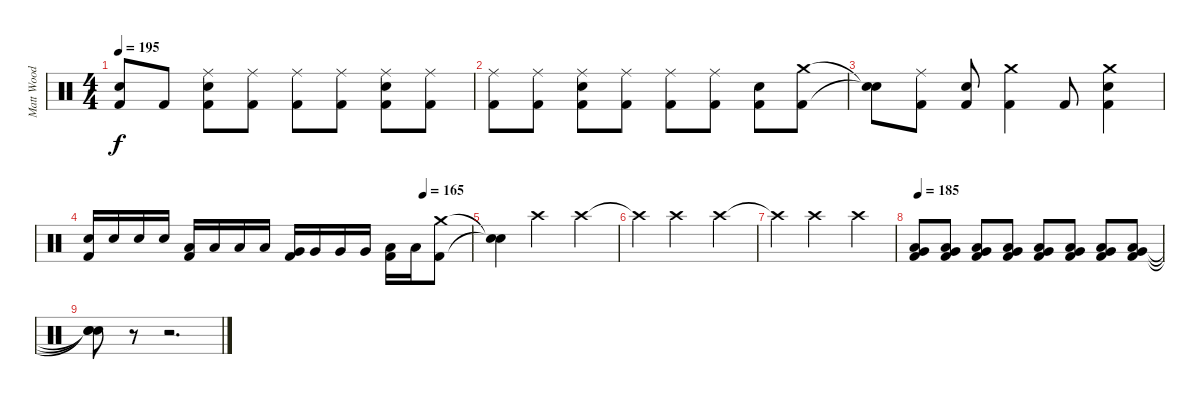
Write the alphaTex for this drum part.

\track ("Matt Wood" "Matt Wood") {instrument percussion}
\staff {score}
\articulation defaults
\ts (4 4)
\tempo 195
\clef neutral
\ks c
("Snare (hit)"{t} "Kick (hit) 2"{t}).8{dy f} "Kick (hit) 2".8 ("Ride (middle)" "Snare (hit) 2" "Kick (hit) 2").8 ("Ride (middle)" "Kick (hit) 2").8 ("Ride (middle)" "Kick (hit) 2").8 ("Ride (middle)" "Kick (hit) 2").8 ("Ride (middle)" "Snare (hit) 2" "Kick (hit) 2").8 ("Ride (middle)" "Kick (hit) 2").8 |
("Ride (middle)" "Kick (hit) 2").8 ("Ride (middle)" "Kick (hit) 2").8 ("Ride (middle)" "Snare (hit) 2" "Kick (hit) 2").8 ("Ride (middle)" "Kick (hit) 2").8 ("Ride (middle)" "Kick (hit) 2").8 ("Ride (middle)" "Kick (hit) 2").8 ("Snare (hit) 2" "Kick (hit) 2").8 ("Crash medium (hit)" "Kick (hit) 2").8 |
("Snare (hit)"{t} "Snare (hit)"{t}).8 ("Ride (middle)" "Kick (hit) 2").8 ("Snare (hit) 2" "Kick (hit) 2").8 ("Crash medium (hit)" "Kick (hit) 2").4 "Kick (hit) 2".8 ("Crash medium (hit)" "Snare (hit) 2" "Kick (hit) 2").4 |
\tempo (165 0.875)
("Snare (hit) 2" "Kick (hit) 2").16 "Snare (hit) 2".16 "Snare (hit) 2".16 "Snare (hit) 2".16 ("Low Tom (hit)" "Kick (hit) 2").16 "Low Tom (hit)".16 "Low Tom (hit)".16 "Low Tom (hit)".16 ("Very Low Tom (hit)" "Kick (hit) 2").16 "Very Low Tom (hit)".16 "Very Low Tom (hit)".16 "Very Low Tom (hit)".16 ("Low Floor Tom (hit)" "Kick (hit) 2").16 "Low Floor Tom (hit)".16 ("Crash medium (hit)" "Kick (hit) 2").8 |
("Snare (hit)"{t} "Snare (hit)"{t}).4 "Crash high (hit)".2 "Crash high (hit)".4 |
"Crash high (hit)"{t}.4 "Crash high (hit)".2 "Crash high (hit)".4 |
"Crash high (hit)"{t}.4 "Crash high (hit)".2 "Crash high (hit)".4 |
\tempo 185
("Low Tom (hit)" "Very Low Tom (hit)" "Kick (hit) 2").8 ("Low Tom (hit)" "Very Low Tom (hit)" "Kick (hit) 2").8 ("Low Tom (hit)" "Very Low Tom (hit)" "Kick (hit) 2").8 ("Low Tom (hit)" "Very Low Tom (hit)" "Kick (hit) 2").8 ("Low Tom (hit)" "Very Low Tom (hit)" "Kick (hit) 2").8 ("Low Tom (hit)" "Very Low Tom (hit)" "Kick (hit) 2").8 ("Low Tom (hit)" "Very Low Tom (hit)" "Kick (hit) 2").8 ("Low Tom (hit)" "Very Low Tom (hit)" "Kick (hit) 2").8 |
("Snare (hit)"{t} "Snare (hit)"{t} "Snare (hit)"{t}).8 r.8 r.2{d}
